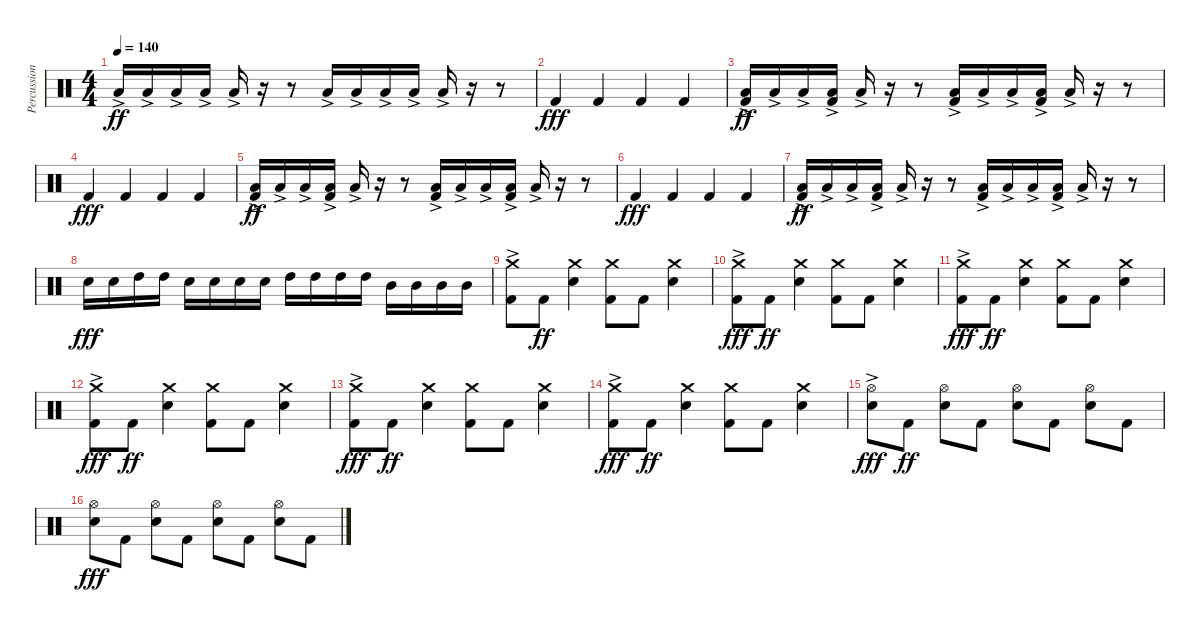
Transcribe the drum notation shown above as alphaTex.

\track ("Percussion" "Percussion") {instrument percussion}
\staff {score}
\articulation defaults
\ts (4 4)
\tempo 140
\clef neutral
\ks c "Low Floor Tom (hit)"{ac}.16{dy ff} "Low Floor Tom (hit)"{ac}.16 "Low Floor Tom (hit)"{ac}.16 "Low Floor Tom (hit)"{ac}.16 "Low Floor Tom (hit)"{ac}.16
r.16 r.8 "Low Floor Tom (hit)"{ac}.16 "Low Floor Tom (hit)"{ac}.16 "Low Floor Tom (hit)"{ac}.16 "Low Floor Tom (hit)"{ac}.16 "Low Floor Tom (hit)"{ac}.16 r.16 r.8 |
"Kick (hit) 2".4{dy fff} "Kick (hit) 2".4 "Kick (hit) 2".4 "Kick (hit) 2".4 |
("Kick (hit) 2" "Low Floor Tom (hit)"{ac}).16{dy ff} "Low Floor Tom (hit)"{ac}.16 "Low Floor Tom (hit)"{ac}.16 ("Kick (hit) 2" "Low Floor Tom (hit)"{ac}).16 "Low Floor Tom (hit)"{ac}.16 r.16 r.8 ("Kick (hit) 2" "Low Floor Tom (hit)"{ac}).16 "Low Floor Tom (hit)"{ac}.16 "Low Floor Tom (hit)"{ac}.16 ("Kick (hit) 2" "Low Floor Tom (hit)"{ac}).16 "Low Floor Tom (hit)"{ac}.16 r.16 r.8 |
"Kick (hit) 2".4{dy fff} "Kick (hit) 2".4 "Kick (hit) 2".4 "Kick (hit) 2".4 |
("Kick (hit) 2" "Low Floor Tom (hit)"{ac}).16{dy ff} "Low Floor Tom (hit)"{ac}.16 "Low Floor Tom (hit)"{ac}.16 ("Kick (hit) 2" "Low Floor Tom (hit)"{ac}).16 "Low Floor Tom (hit)"{ac}.16 r.16 r.8 ("Kick (hit) 2" "Low Floor Tom (hit)"{ac}).16 "Low Floor Tom (hit)"{ac}.16 "Low Floor Tom (hit)"{ac}.16 ("Kick (hit) 2" "Low Floor Tom (hit)"{ac}).16 "Low Floor Tom (hit)"{ac}.16 r.16 r.8 |
"Kick (hit) 2".4{dy fff} "Kick (hit) 2".4 "Kick (hit) 2".4 "Kick (hit) 2".4 |
("Kick (hit) 2" "Low Floor Tom (hit)"{ac}).16{dy ff} "Low Floor Tom (hit)"{ac}.16 "Low Floor Tom (hit)"{ac}.16 ("Kick (hit) 2" "Low Floor Tom (hit)"{ac}).16 "Low Floor Tom (hit)"{ac}.16 r.16 r.8 ("Kick (hit) 2" "Low Floor Tom (hit)"{ac}).16 "Low Floor Tom (hit)"{ac}.16 "Low Floor Tom (hit)"{ac}.16 ("Kick (hit) 2" "Low Floor Tom (hit)"{ac}).16 "Low Floor Tom (hit)"{ac}.16 r.16 r.8 |
"Snare (hit) 2".16{dy fff} "Snare (hit) 2".16 "High Tom (hit)".16 "High Tom (hit)".16 "Snare (hit) 2".16 "Snare (hit) 2".16 "Snare (hit) 2".16 "Snare (hit) 2".16 "High Tom (hit)".16 "High Tom (hit)".16 "High Tom (hit)".16 "High Tom (hit)".16 "Mid Tom (hit)".16 "Mid Tom (hit)".16 "Mid Tom (hit)".16 "Mid Tom (hit)".16 |
("Crash medium (hit)" "Kick (hit) 2"{ac}).8 "Kick (hit) 2".8{dy ff} ("Crash medium (hit)" "Snare (hit) 2").4 ("Crash medium (hit)" "Kick (hit) 2").8 "Kick (hit) 2".8 ("Crash medium (hit)" "Snare (hit) 2").4 |
("Crash medium (hit)" "Kick (hit) 2"{ac}).8{dy fff} "Kick (hit) 2".8{dy ff} ("Crash medium (hit)" "Snare (hit) 2").4 ("Crash medium (hit)" "Kick (hit) 2").8 "Kick (hit) 2".8 ("Crash medium (hit)" "Snare (hit) 2").4 |
("Crash medium (hit)" "Kick (hit) 2"{ac}).8{dy fff} "Kick (hit) 2".8{dy ff} ("Crash medium (hit)" "Snare (hit) 2").4 ("Crash medium (hit)" "Kick (hit) 2").8 "Kick (hit) 2".8 ("Crash medium (hit)" "Snare (hit) 2").4 |
("Crash medium (hit)" "Kick (hit) 2"{ac}).8{dy fff} "Kick (hit) 2".8{dy ff} ("Crash medium (hit)" "Snare (hit) 2").4 ("Crash medium (hit)" "Kick (hit) 2").8 "Kick (hit) 2".8 ("Crash medium (hit)" "Snare (hit) 2").4 |
("Crash medium (hit)" "Kick (hit) 2"{ac}).8{dy fff} "Kick (hit) 2".8{dy ff} ("Crash medium (hit)" "Snare (hit) 2").4 ("Crash medium (hit)" "Kick (hit) 2").8 "Kick (hit) 2".8 ("Crash medium (hit)" "Snare (hit) 2").4 |
("Crash medium (hit)" "Kick (hit) 2"{ac}).8{dy fff} "Kick (hit) 2".8{dy ff} ("Crash medium (hit)" "Snare (hit) 2").4 ("Crash medium (hit)" "Kick (hit) 2").8 "Kick (hit) 2".8 ("Crash medium (hit)" "Snare (hit) 2").4 |
("Hi-Hat (open)" "Snare (hit) 2"{ac}).8{dy fff} "Kick (hit) 2".8{dy ff} ("Hi-Hat (open)" "Snare (hit) 2").8 "Kick (hit) 2".8 ("Hi-Hat (open)" "Snare (hit) 2").8 "Kick (hit) 2".8 ("Hi-Hat (open)" "Snare (hit) 2").8 "Kick (hit) 2".8 |
("Hi-Hat (open)" "Snare (hit) 2").8{dy fff} "Kick (hit) 2".8 ("Hi-Hat (open)" "Snare (hit) 2").8 "Kick (hit) 2".8 ("Hi-Hat (open)" "Snare (hit) 2").8 "Kick (hit) 2".8 ("Hi-Hat (open)" "Snare (hit) 2").8 "Kick (hit) 2".8
